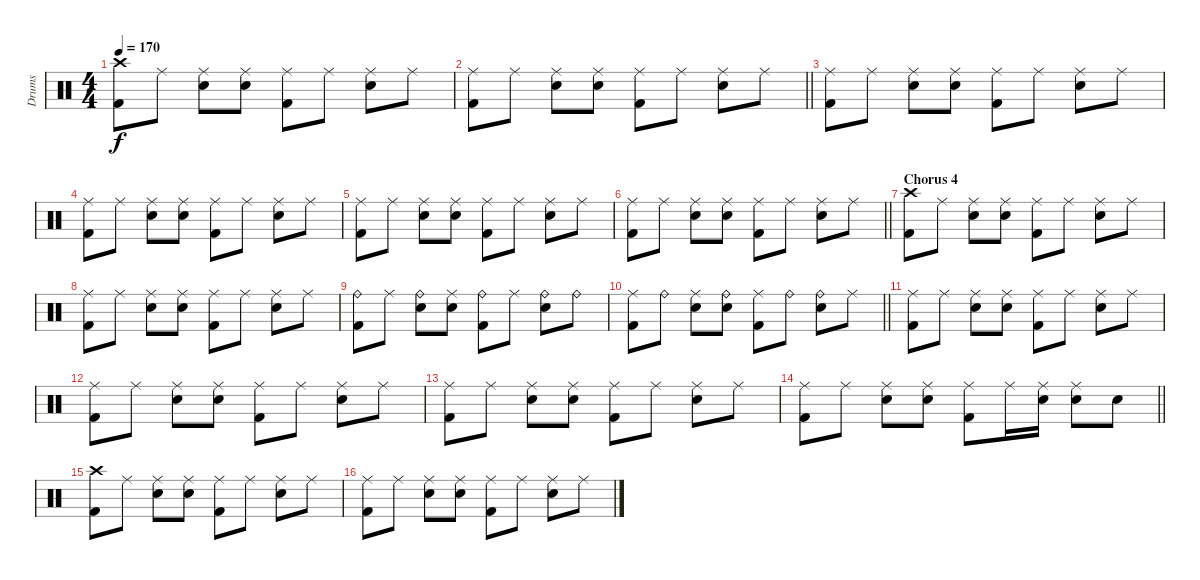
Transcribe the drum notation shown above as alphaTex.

\track ("Drums" "Drums") {instrument percussion}
\staff {score}
\articulation defaults
\ts (4 4)
\tempo 170
\clef neutral
\ks c
("Crash high (hit)" "Kick (hit) 2").8{dy f} "Ride (middle)".8 ("Ride (middle)" "Snare (hit) 2").8 ("Ride (middle)" "Snare (hit) 2").8 ("Ride (middle)" "Kick (hit) 2").8 "Ride (middle)".8 ("Ride (middle)" "Snare (hit) 2").8 "Ride (middle)".8 |
\barLineRight lightlight
("Ride (middle)" "Kick (hit) 2").8 "Ride (middle)".8 ("Ride (middle)" "Snare (hit) 2").8 ("Ride (middle)" "Snare (hit) 2").8 ("Ride (middle)" "Kick (hit) 2").8 "Ride (middle)".8 ("Ride (middle)" "Snare (hit) 2").8 "Ride (middle)".8 |
("Ride (middle)" "Kick (hit) 2").8 "Ride (middle)".8 ("Ride (middle)" "Snare (hit) 2").8 ("Ride (middle)" "Snare (hit) 2").8 ("Ride (middle)" "Kick (hit) 2").8 "Ride (middle)".8 ("Ride (middle)" "Snare (hit) 2").8 "Ride (middle)".8 |
("Ride (middle)" "Kick (hit) 2").8 "Ride (middle)".8 ("Ride (middle)" "Snare (hit) 2").8 ("Ride (middle)" "Snare (hit) 2").8 ("Ride (middle)" "Kick (hit) 2").8 "Ride (middle)".8 ("Ride (middle)" "Snare (hit) 2").8 "Ride (middle)".8 |
("Ride (middle)" "Kick (hit) 2").8 "Ride (middle)".8 ("Ride (middle)" "Snare (hit) 2").8 ("Ride (middle)" "Snare (hit) 2").8 ("Ride (middle)" "Kick (hit) 2").8 "Ride (middle)".8 ("Ride (middle)" "Snare (hit) 2").8 "Ride (middle)".8 |
\barLineRight lightlight
("Ride (middle)" "Kick (hit) 2").8 "Ride (middle)".8 ("Ride (middle)" "Snare (hit) 2").8 ("Ride (middle)" "Snare (hit) 2").8 ("Ride (middle)" "Kick (hit) 2").8 "Ride (middle)".8 ("Ride (middle)" "Snare (hit) 2").8 "Ride (middle)".8 |
\section ("" "Chorus 4")
("Crash high (hit)" "Kick (hit) 2").8 "Ride (middle)".8 ("Ride (middle)" "Snare (hit) 2").8 ("Ride (middle)" "Snare (hit) 2").8 ("Ride (middle)" "Kick (hit) 2").8 "Ride (middle)".8 ("Ride (middle)" "Snare (hit) 2").8 "Ride (middle)".8 |
("Ride (middle)" "Kick (hit) 2").8 "Ride (middle)".8 ("Ride (middle)" "Snare (hit) 2").8 ("Ride (middle)" "Snare (hit) 2").8 ("Ride (middle)" "Kick (hit) 2").8 "Ride (middle)".8 ("Ride (middle)" "Snare (hit) 2").8 "Ride (middle)".8 |
("Ride (bell)" "Kick (hit) 2").8 "Ride (middle)".8 ("Ride (bell)" "Snare (hit) 2").8 ("Ride (middle)" "Snare (hit) 2").8 ("Ride (bell)" "Kick (hit) 2").8 "Ride (middle)".8 ("Ride (bell)" "Snare (hit) 2").8 "Ride (bell)".8 |
\barLineRight lightlight
("Ride (middle)" "Kick (hit) 2").8 "Ride (bell)".8 ("Ride (middle)" "Snare (hit) 2").8 ("Ride (bell)" "Snare (hit) 2").8 ("Ride (middle)" "Kick (hit) 2").8 "Ride (bell)".8 ("Ride (bell)" "Snare (hit) 2").8 "Ride (middle)".8 |
("Ride (middle)" "Kick (hit) 2").8 "Ride (middle)".8 ("Ride (middle)" "Snare (hit) 2").8 ("Ride (middle)" "Snare (hit) 2").8 ("Ride (middle)" "Kick (hit) 2").8 "Ride (middle)".8 ("Ride (middle)" "Snare (hit) 2").8 "Ride (middle)".8 |
("Ride (middle)" "Kick (hit) 2").8 "Ride (middle)".8 ("Ride (middle)" "Snare (hit) 2").8 ("Ride (middle)" "Snare (hit) 2").8 ("Ride (middle)" "Kick (hit) 2").8 "Ride (middle)".8 ("Ride (middle)" "Snare (hit) 2").8 "Ride (middle)".8 |
("Ride (middle)" "Kick (hit) 2").8 "Ride (middle)".8 ("Ride (middle)" "Snare (hit) 2").8 ("Ride (middle)" "Snare (hit) 2").8 ("Ride (middle)" "Kick (hit) 2").8 "Ride (middle)".8 ("Ride (middle)" "Snare (hit) 2").8 "Ride (middle)".8 |
\barLineRight lightlight
("Ride (middle)" "Kick (hit) 2").8 "Ride (middle)".8 ("Ride (middle)" "Snare (hit) 2").8 ("Ride (middle)" "Snare (hit) 2").8 ("Ride (middle)" "Kick (hit) 2").8 "Ride (middle)".16 ("Ride (middle)" "Snare (hit) 2").16 ("Ride (middle)" "Snare (hit) 2").8 "Snare (hit) 2".8 |
("Crash high (hit)" "Kick (hit) 2").8 "Ride (middle)".8 ("Ride (middle)" "Snare (hit) 2").8 ("Ride (middle)" "Snare (hit) 2").8 ("Ride (middle)" "Kick (hit) 2").8 "Ride (middle)".8 ("Ride (middle)" "Snare (hit) 2").8 "Ride (middle)".8 |
("Ride (middle)" "Kick (hit) 2").8 "Ride (middle)".8 ("Ride (middle)" "Snare (hit) 2").8 ("Ride (middle)" "Snare (hit) 2").8 ("Ride (middle)" "Kick (hit) 2").8 "Ride (middle)".8 ("Ride (middle)" "Snare (hit) 2").8 "Ride (middle)".8
